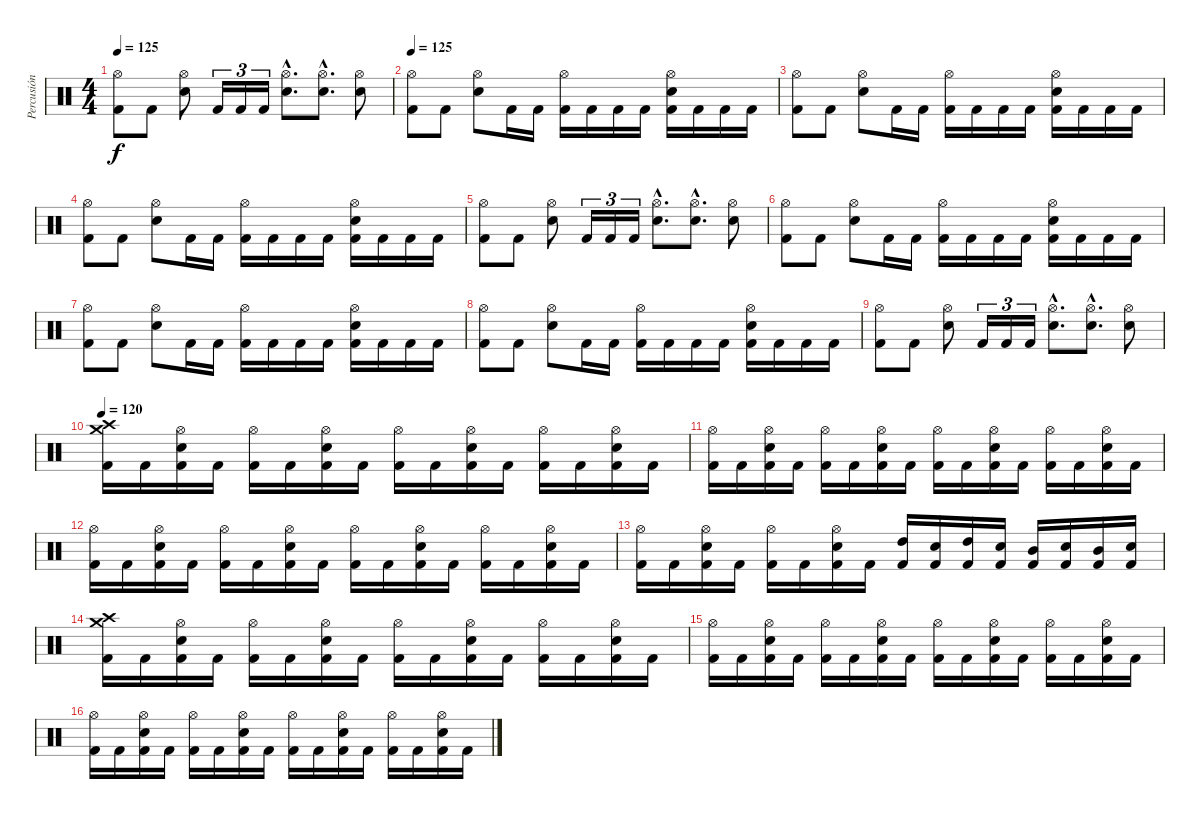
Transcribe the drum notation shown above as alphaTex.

\track ("Percusión" "Percusión") {instrument percussion}
\staff {score}
\articulation defaults
\ts (4 4)
\tempo 125
\clef neutral
\ks c
("Hi-Hat (open)" "Kick (hit) 2").8{dy f} "Kick (hit) 2".8 ("Hi-Hat (open)" "Electric Snare (hit)").8 "Kick (hit) 2".16{tu (3 2)} "Kick (hit) 2".16{tu (3 2)} "Kick (hit) 2".16{tu (3 2)} ("Hi-Hat (open)"{hac} "Electric Snare (hit)"{hac}).8{d} ("Hi-Hat (open)"{hac} "Electric Snare (hit)"{hac}).8{d} ("Hi-Hat (open)" "Electric Snare (hit)").8 |
\tempo 125
("Hi-Hat (open)" "Kick (hit) 2").8 "Kick (hit) 2".8 ("Hi-Hat (open)" "Electric Snare (hit)").8 "Kick (hit) 2".16 "Kick (hit) 2".16 ("Hi-Hat (open)" "Kick (hit) 2").16 "Kick (hit) 2".16 "Kick (hit) 2".16 "Kick (hit) 2".16 ("Hi-Hat (open)" "Electric Snare (hit)" "Kick (hit) 2").16 "Kick (hit) 2".16 "Kick (hit) 2".16 "Kick (hit) 2".16 |
("Hi-Hat (open)" "Kick (hit) 2").8 "Kick (hit) 2".8 ("Hi-Hat (open)" "Electric Snare (hit)").8 "Kick (hit) 2".16 "Kick (hit) 2".16 ("Hi-Hat (open)" "Kick (hit) 2").16 "Kick (hit) 2".16 "Kick (hit) 2".16 "Kick (hit) 2".16 ("Hi-Hat (open)" "Electric Snare (hit)" "Kick (hit) 2").16 "Kick (hit) 2".16 "Kick (hit) 2".16 "Kick (hit) 2".16 |
("Hi-Hat (open)" "Kick (hit) 2").8 "Kick (hit) 2".8 ("Hi-Hat (open)" "Electric Snare (hit)").8 "Kick (hit) 2".16 "Kick (hit) 2".16 ("Hi-Hat (open)" "Kick (hit) 2").16 "Kick (hit) 2".16 "Kick (hit) 2".16 "Kick (hit) 2".16 ("Hi-Hat (open)" "Electric Snare (hit)" "Kick (hit) 2").16 "Kick (hit) 2".16 "Kick (hit) 2".16 "Kick (hit) 2".16 |
("Hi-Hat (open)" "Kick (hit) 2").8 "Kick (hit) 2".8 ("Hi-Hat (open)" "Electric Snare (hit)").8 "Kick (hit) 2".16{tu (3 2)} "Kick (hit) 2".16{tu (3 2)} "Kick (hit) 2".16{tu (3 2)} ("Hi-Hat (open)"{hac} "Electric Snare (hit)"{hac}).8{d} ("Hi-Hat (open)"{hac} "Electric Snare (hit)"{hac}).8{d} ("Hi-Hat (open)" "Electric Snare (hit)").8 |
("Hi-Hat (open)" "Kick (hit) 2").8 "Kick (hit) 2".8 ("Hi-Hat (open)" "Electric Snare (hit)").8 "Kick (hit) 2".16 "Kick (hit) 2".16 ("Hi-Hat (open)" "Kick (hit) 2").16 "Kick (hit) 2".16 "Kick (hit) 2".16 "Kick (hit) 2".16 ("Hi-Hat (open)" "Electric Snare (hit)" "Kick (hit) 2").16 "Kick (hit) 2".16 "Kick (hit) 2".16 "Kick (hit) 2".16 |
("Hi-Hat (open)" "Kick (hit) 2").8 "Kick (hit) 2".8 ("Hi-Hat (open)" "Electric Snare (hit)").8 "Kick (hit) 2".16 "Kick (hit) 2".16 ("Hi-Hat (open)" "Kick (hit) 2").16 "Kick (hit) 2".16 "Kick (hit) 2".16 "Kick (hit) 2".16 ("Hi-Hat (open)" "Electric Snare (hit)" "Kick (hit) 2").16 "Kick (hit) 2".16 "Kick (hit) 2".16 "Kick (hit) 2".16 |
("Hi-Hat (open)" "Kick (hit) 2").8 "Kick (hit) 2".8 ("Hi-Hat (open)" "Electric Snare (hit)").8 "Kick (hit) 2".16 "Kick (hit) 2".16 ("Hi-Hat (open)" "Kick (hit) 2").16 "Kick (hit) 2".16 "Kick (hit) 2".16 "Kick (hit) 2".16 ("Hi-Hat (open)" "Electric Snare (hit)" "Kick (hit) 2").16 "Kick (hit) 2".16 "Kick (hit) 2".16 "Kick (hit) 2".16 |
("Hi-Hat (open)" "Kick (hit) 2").8 "Kick (hit) 2".8 ("Hi-Hat (open)" "Electric Snare (hit)").8 "Kick (hit) 2".16{tu (3 2)} "Kick (hit) 2".16{tu (3 2)} "Kick (hit) 2".16{tu (3 2)} ("Hi-Hat (open)"{hac} "Electric Snare (hit)"{hac}).8{d} ("Hi-Hat (open)"{hac} "Electric Snare (hit)"{hac}).8{d} ("Hi-Hat (open)" "Electric Snare (hit)").8 |
\tempo 120
("Crash high (hit)" "Crash medium (hit)" "Kick (hit) 2").16 "Kick (hit) 2".16 ("Hi-Hat (open)" "Electric Snare (hit)" "Kick (hit) 2").16 "Kick (hit) 2".16 ("Hi-Hat (open)" "Kick (hit) 2").16 "Kick (hit) 2".16 ("Hi-Hat (open)" "Electric Snare (hit)" "Kick (hit) 2").16 "Kick (hit) 2".16 ("Hi-Hat (open)" "Kick (hit) 2").16 "Kick (hit) 2".16 ("Hi-Hat (open)" "Electric Snare (hit)" "Kick (hit) 2").16 "Kick (hit) 2".16 ("Hi-Hat (open)" "Kick (hit) 2").16 "Kick (hit) 2".16 ("Hi-Hat (open)" "Electric Snare (hit)" "Kick (hit) 2").16 "Kick (hit) 2".16 |
("Hi-Hat (open)" "Kick (hit) 2").16 "Kick (hit) 2".16 ("Hi-Hat (open)" "Electric Snare (hit)" "Kick (hit) 2").16 "Kick (hit) 2".16 ("Hi-Hat (open)" "Kick (hit) 2").16 "Kick (hit) 2".16 ("Hi-Hat (open)" "Electric Snare (hit)" "Kick (hit) 2").16 "Kick (hit) 2".16 ("Hi-Hat (open)" "Kick (hit) 2").16 "Kick (hit) 2".16 ("Hi-Hat (open)" "Electric Snare (hit)" "Kick (hit) 2").16 "Kick (hit) 2".16 ("Hi-Hat (open)" "Kick (hit) 2").16 "Kick (hit) 2".16 ("Hi-Hat (open)" "Electric Snare (hit)" "Kick (hit) 2").16 "Kick (hit) 2".16 |
("Hi-Hat (open)" "Kick (hit) 2").16 "Kick (hit) 2".16 ("Hi-Hat (open)" "Electric Snare (hit)" "Kick (hit) 2").16 "Kick (hit) 2".16 ("Hi-Hat (open)" "Kick (hit) 2").16 "Kick (hit) 2".16 ("Hi-Hat (open)" "Electric Snare (hit)" "Kick (hit) 2").16 "Kick (hit) 2".16 ("Hi-Hat (open)" "Kick (hit) 2").16 "Kick (hit) 2".16 ("Hi-Hat (open)" "Electric Snare (hit)" "Kick (hit) 2").16 "Kick (hit) 2".16 ("Hi-Hat (open)" "Kick (hit) 2").16 "Kick (hit) 2".16 ("Hi-Hat (open)" "Electric Snare (hit)" "Kick (hit) 2").16 "Kick (hit) 2".16 |
("Hi-Hat (open)" "Kick (hit) 2").16 "Kick (hit) 2".16 ("Hi-Hat (open)" "Electric Snare (hit)" "Kick (hit) 2").16 "Kick (hit) 2".16 ("Hi-Hat (open)" "Kick (hit) 2").16 "Kick (hit) 2".16 ("Hi-Hat (open)" "Electric Snare (hit)" "Kick (hit) 2").16 "Kick (hit) 2".16 ("High Tom (hit)" "Kick (hit) 2").16 ("Electric Snare (hit)" "Kick (hit) 2").16 ("High Tom (hit)" "Kick (hit) 2").16 ("Electric Snare (hit)" "Kick (hit) 2").16 ("Mid Tom (hit)" "Kick (hit) 2").16 ("Electric Snare (hit)" "Kick (hit) 2").16 ("Mid Tom (hit)" "Kick (hit) 2").16 ("Electric Snare (hit)" "Kick (hit) 2").16 |
("Crash high (hit)" "Crash medium (hit)" "Kick (hit) 2").16 "Kick (hit) 2".16 ("Hi-Hat (open)" "Electric Snare (hit)" "Kick (hit) 2").16 "Kick (hit) 2".16 ("Hi-Hat (open)" "Kick (hit) 2").16 "Kick (hit) 2".16 ("Hi-Hat (open)" "Electric Snare (hit)" "Kick (hit) 2").16 "Kick (hit) 2".16 ("Hi-Hat (open)" "Kick (hit) 2").16 "Kick (hit) 2".16 ("Hi-Hat (open)" "Electric Snare (hit)" "Kick (hit) 2").16 "Kick (hit) 2".16 ("Hi-Hat (open)" "Kick (hit) 2").16 "Kick (hit) 2".16 ("Hi-Hat (open)" "Electric Snare (hit)" "Kick (hit) 2").16 "Kick (hit) 2".16 |
("Hi-Hat (open)" "Kick (hit) 2").16 "Kick (hit) 2".16 ("Hi-Hat (open)" "Electric Snare (hit)" "Kick (hit) 2").16 "Kick (hit) 2".16 ("Hi-Hat (open)" "Kick (hit) 2").16 "Kick (hit) 2".16 ("Hi-Hat (open)" "Electric Snare (hit)" "Kick (hit) 2").16 "Kick (hit) 2".16 ("Hi-Hat (open)" "Kick (hit) 2").16 "Kick (hit) 2".16 ("Hi-Hat (open)" "Electric Snare (hit)" "Kick (hit) 2").16 "Kick (hit) 2".16 ("Hi-Hat (open)" "Kick (hit) 2").16 "Kick (hit) 2".16 ("Hi-Hat (open)" "Electric Snare (hit)" "Kick (hit) 2").16 "Kick (hit) 2".16 |
("Hi-Hat (open)" "Kick (hit) 2").16 "Kick (hit) 2".16 ("Hi-Hat (open)" "Electric Snare (hit)" "Kick (hit) 2").16 "Kick (hit) 2".16 ("Hi-Hat (open)" "Kick (hit) 2").16 "Kick (hit) 2".16 ("Hi-Hat (open)" "Electric Snare (hit)" "Kick (hit) 2").16 "Kick (hit) 2".16 ("Hi-Hat (open)" "Kick (hit) 2").16 "Kick (hit) 2".16 ("Hi-Hat (open)" "Electric Snare (hit)" "Kick (hit) 2").16 "Kick (hit) 2".16 ("Hi-Hat (open)" "Kick (hit) 2").16 "Kick (hit) 2".16 ("Hi-Hat (open)" "Electric Snare (hit)" "Kick (hit) 2").16 "Kick (hit) 2".16
